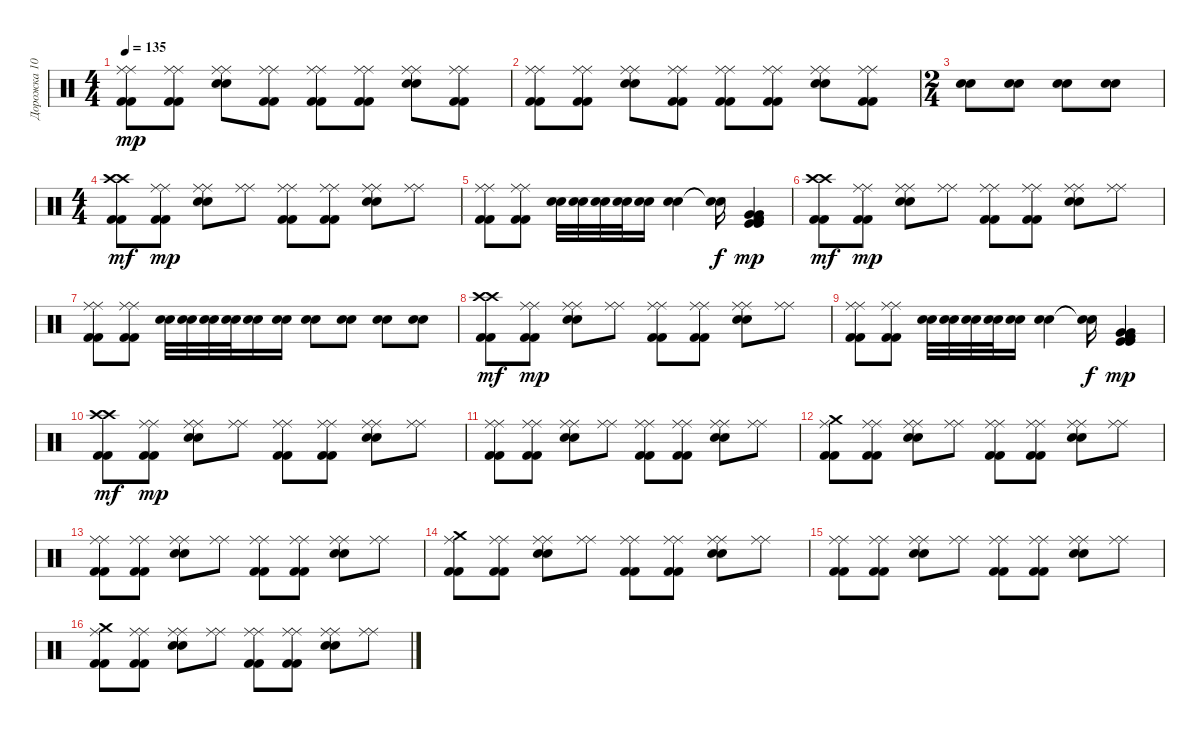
\track ("Дорожка 10" "Дорожка 10") {instrument percussion}
\staff {score}
\articulation defaults
\ts (4 4)
\tempo 135
\clef neutral
\ks c
("Kick (hit) 2" "Ride (middle)" "Kick (hit) 2" "Ride (middle)").8{dy mp} ("Kick (hit) 2" "Ride (middle)" "Kick (hit) 2" "Ride (middle)").8 ("Snare (hit) 2" "Ride (middle)" "Snare (hit) 2" "Ride (middle)").8 ("Kick (hit) 2" "Ride (middle)" "Kick (hit) 2" "Ride (middle)").8 ("Kick (hit) 2" "Ride (middle)" "Kick (hit) 2" "Ride (middle)").8 ("Kick (hit) 2" "Ride (middle)" "Kick (hit) 2" "Ride (middle)").8 ("Snare (hit) 2" "Ride (middle)" "Snare (hit) 2" "Ride (middle)").8 ("Kick (hit) 2" "Ride (middle)" "Kick (hit) 2" "Ride (middle)").8 |
("Kick (hit) 2" "Ride (middle)" "Kick (hit) 2" "Ride (middle)").8 ("Kick (hit) 2" "Ride (middle)" "Kick (hit) 2" "Ride (middle)").8 ("Snare (hit) 2" "Ride (middle)" "Snare (hit) 2" "Ride (middle)").8 ("Kick (hit) 2" "Ride (middle)" "Kick (hit) 2" "Ride (middle)").8 ("Kick (hit) 2" "Ride (middle)" "Kick (hit) 2" "Ride (middle)").8 ("Kick (hit) 2" "Ride (middle)" "Kick (hit) 2" "Ride (middle)").8 ("Snare (hit) 2" "Ride (middle)" "Snare (hit) 2" "Ride (middle)").8 ("Kick (hit) 2" "Ride (middle)" "Kick (hit) 2" "Ride (middle)").8 |
\ts (2 4)
("Snare (hit) 2" "Snare (hit) 2").8 ("Snare (hit) 2" "Snare (hit) 2").8 ("Snare (hit) 2" "Snare (hit) 2").8 ("Snare (hit) 2" "Snare (hit) 2").8 |
\ts (4 4)
("Kick (hit) 2" "Crash high (hit)" "Kick (hit) 2" "Crash high (hit)").8{dy mf} ("Kick (hit) 2" "Ride (middle)" "Kick (hit) 2" "Ride (middle)").8{dy mp} ("Snare (hit) 2" "Ride (middle)" "Snare (hit) 2" "Ride (middle)").8 ("Ride (middle)" "Ride (middle)").8 ("Kick (hit) 2" "Ride (middle)" "Kick (hit) 2" "Ride (middle)").8 ("Kick (hit) 2" "Ride (middle)" "Kick (hit) 2" "Ride (middle)").8 ("Snare (hit) 2" "Ride (middle)" "Snare (hit) 2" "Ride (middle)").8 ("Ride (middle)" "Ride (middle)").8 |
("Kick (hit) 2" "Ride (middle)" "Kick (hit) 2" "Ride (middle)").8 ("Kick (hit) 2" "Ride (middle)" "Kick (hit) 2" "Ride (middle)").8 ("Snare (hit) 2" "Snare (hit) 2").32 ("Snare (hit) 2" "Snare (hit) 2").32 ("Snare (hit) 2" "Snare (hit) 2").32 ("Snare (hit) 2" "Snare (hit) 2").32 ("Snare (hit) 2" "Snare (hit) 2").16 ("Snare (hit) 2" "Snare (hit) 2").4 ("Snare (hit)"{t} "Snare (hit)"{t}).16{dy f} ("Kick (hit)" "Kick (hit) 2" "Very Low Tom (hit)" "Kick (hit)" "Kick (hit) 2" "Very Low Tom (hit)").4{dy mp} |
("Kick (hit) 2" "Crash high (hit)" "Kick (hit) 2" "Crash high (hit)").8{dy mf} ("Kick (hit) 2" "Ride (middle)" "Kick (hit) 2" "Ride (middle)").8{dy mp} ("Snare (hit) 2" "Ride (middle)" "Snare (hit) 2" "Ride (middle)").8 ("Ride (middle)" "Ride (middle)").8 ("Kick (hit) 2" "Ride (middle)" "Kick (hit) 2" "Ride (middle)").8 ("Kick (hit) 2" "Ride (middle)" "Kick (hit) 2" "Ride (middle)").8 ("Snare (hit) 2" "Ride (middle)" "Snare (hit) 2" "Ride (middle)").8 ("Ride (middle)" "Ride (middle)").8 |
("Kick (hit) 2" "Ride (middle)" "Kick (hit) 2" "Ride (middle)").8 ("Kick (hit) 2" "Ride (middle)" "Kick (hit) 2" "Ride (middle)").8 ("Snare (hit) 2" "Snare (hit) 2").32 ("Snare (hit) 2" "Snare (hit) 2").32 ("Snare (hit) 2" "Snare (hit) 2").32 ("Snare (hit) 2" "Snare (hit) 2").32 ("Snare (hit) 2" "Snare (hit) 2").16 ("Snare (hit) 2" "Snare (hit) 2").16 ("Snare (hit) 2" "Snare (hit) 2").8 ("Snare (hit) 2" "Snare (hit) 2").8 ("Snare (hit) 2" "Snare (hit) 2").8 ("Snare (hit) 2" "Snare (hit) 2").8 |
("Kick (hit) 2" "Crash high (hit)" "Kick (hit) 2" "Crash high (hit)").8{dy mf} ("Kick (hit) 2" "Ride (middle)" "Kick (hit) 2" "Ride (middle)").8{dy mp} ("Snare (hit) 2" "Ride (middle)" "Snare (hit) 2" "Ride (middle)").8 ("Ride (middle)" "Ride (middle)").8 ("Kick (hit) 2" "Ride (middle)" "Kick (hit) 2" "Ride (middle)").8 ("Kick (hit) 2" "Ride (middle)" "Kick (hit) 2" "Ride (middle)").8 ("Snare (hit) 2" "Ride (middle)" "Snare (hit) 2" "Ride (middle)").8 ("Ride (middle)" "Ride (middle)").8 |
("Kick (hit) 2" "Ride (middle)" "Kick (hit) 2" "Ride (middle)").8 ("Kick (hit) 2" "Ride (middle)" "Kick (hit) 2" "Ride (middle)").8 ("Snare (hit) 2" "Snare (hit) 2").32 ("Snare (hit) 2" "Snare (hit) 2").32 ("Snare (hit) 2" "Snare (hit) 2").32 ("Snare (hit) 2" "Snare (hit) 2").32 ("Snare (hit) 2" "Snare (hit) 2").16 ("Snare (hit) 2" "Snare (hit) 2").4 ("Snare (hit)"{t} "Snare (hit)"{t}).16{dy f} ("Kick (hit)" "Kick (hit) 2" "Very Low Tom (hit)" "Kick (hit)" "Kick (hit) 2" "Very Low Tom (hit)").4{dy mp} |
("Kick (hit) 2" "Crash high (hit)" "Kick (hit) 2" "Crash high (hit)").8{dy mf} ("Kick (hit) 2" "Ride (middle)" "Kick (hit) 2" "Ride (middle)").8{dy mp} ("Snare (hit) 2" "Ride (middle)" "Snare (hit) 2" "Ride (middle)").8 ("Ride (middle)" "Ride (middle)").8 ("Kick (hit) 2" "Ride (middle)" "Kick (hit) 2" "Ride (middle)").8 ("Kick (hit) 2" "Ride (middle)" "Kick (hit) 2" "Ride (middle)").8 ("Snare (hit) 2" "Ride (middle)" "Snare (hit) 2" "Ride (middle)").8 ("Ride (middle)" "Ride (middle)").8 |
("Kick (hit) 2" "Ride (middle)" "Kick (hit) 2" "Ride (middle)").8 ("Kick (hit) 2" "Ride (middle)" "Kick (hit) 2" "Ride (middle)").8 ("Snare (hit) 2" "Ride (middle)" "Snare (hit) 2" "Ride (middle)").8 ("Ride (middle)" "Ride (middle)").8 ("Kick (hit) 2" "Ride (middle)" "Kick (hit) 2" "Ride (middle)").8 ("Kick (hit) 2" "Ride (middle)" "Kick (hit) 2" "Ride (middle)").8 ("Snare (hit) 2" "Ride (middle)" "Snare (hit) 2" "Ride (middle)").8 ("Ride (middle)" "Ride (middle)").8 |
("Kick (hit) 2" "Crash medium (hit)" "Kick (hit) 2" "Ride (middle)").8 ("Kick (hit) 2" "Ride (middle)" "Kick (hit) 2" "Ride (middle)").8 ("Snare (hit) 2" "Ride (middle)" "Snare (hit) 2" "Ride (middle)").8 ("Ride (middle)" "Ride (middle)").8 ("Kick (hit) 2" "Ride (middle)" "Kick (hit) 2" "Ride (middle)").8 ("Kick (hit) 2" "Ride (middle)" "Kick (hit) 2" "Ride (middle)").8 ("Snare (hit) 2" "Ride (middle)" "Snare (hit) 2" "Ride (middle)").8 ("Ride (middle)" "Ride (middle)").8 |
("Kick (hit) 2" "Ride (middle)" "Kick (hit) 2" "Ride (middle)").8 ("Kick (hit) 2" "Ride (middle)" "Kick (hit) 2" "Ride (middle)").8 ("Snare (hit) 2" "Ride (middle)" "Snare (hit) 2" "Ride (middle)").8 ("Ride (middle)" "Ride (middle)").8 ("Kick (hit) 2" "Ride (middle)" "Kick (hit) 2" "Ride (middle)").8 ("Kick (hit) 2" "Ride (middle)" "Kick (hit) 2" "Ride (middle)").8 ("Snare (hit) 2" "Ride (middle)" "Snare (hit) 2" "Ride (middle)").8 ("Ride (middle)" "Ride (middle)").8 |
("Kick (hit) 2" "Crash medium (hit)" "Kick (hit) 2" "Ride (middle)").8 ("Kick (hit) 2" "Ride (middle)" "Kick (hit) 2" "Ride (middle)").8 ("Snare (hit) 2" "Ride (middle)" "Snare (hit) 2" "Ride (middle)").8 ("Ride (middle)" "Ride (middle)").8 ("Kick (hit) 2" "Ride (middle)" "Kick (hit) 2" "Ride (middle)").8 ("Kick (hit) 2" "Ride (middle)" "Kick (hit) 2" "Ride (middle)").8 ("Snare (hit) 2" "Ride (middle)" "Snare (hit) 2" "Ride (middle)").8 ("Ride (middle)" "Ride (middle)").8 |
("Kick (hit) 2" "Ride (middle)" "Kick (hit) 2" "Ride (middle)").8 ("Kick (hit) 2" "Ride (middle)" "Kick (hit) 2" "Ride (middle)").8 ("Snare (hit) 2" "Ride (middle)" "Snare (hit) 2" "Ride (middle)").8 ("Ride (middle)" "Ride (middle)").8 ("Kick (hit) 2" "Ride (middle)" "Kick (hit) 2" "Ride (middle)").8 ("Kick (hit) 2" "Ride (middle)" "Kick (hit) 2" "Ride (middle)").8 ("Snare (hit) 2" "Ride (middle)" "Snare (hit) 2" "Ride (middle)").8 ("Ride (middle)" "Ride (middle)").8 |
("Kick (hit) 2" "Ride (middle)" "Kick (hit) 2" "Crash medium (hit)").8 ("Kick (hit) 2" "Ride (middle)" "Kick (hit) 2" "Ride (middle)").8 ("Snare (hit) 2" "Ride (middle)" "Snare (hit) 2" "Ride (middle)").8 ("Ride (middle)" "Ride (middle)").8 ("Kick (hit) 2" "Ride (middle)" "Kick (hit) 2" "Ride (middle)").8 ("Kick (hit) 2" "Ride (middle)" "Kick (hit) 2" "Ride (middle)").8 ("Snare (hit) 2" "Ride (middle)" "Snare (hit) 2" "Ride (middle)").8 ("Ride (middle)" "Ride (middle)").8
